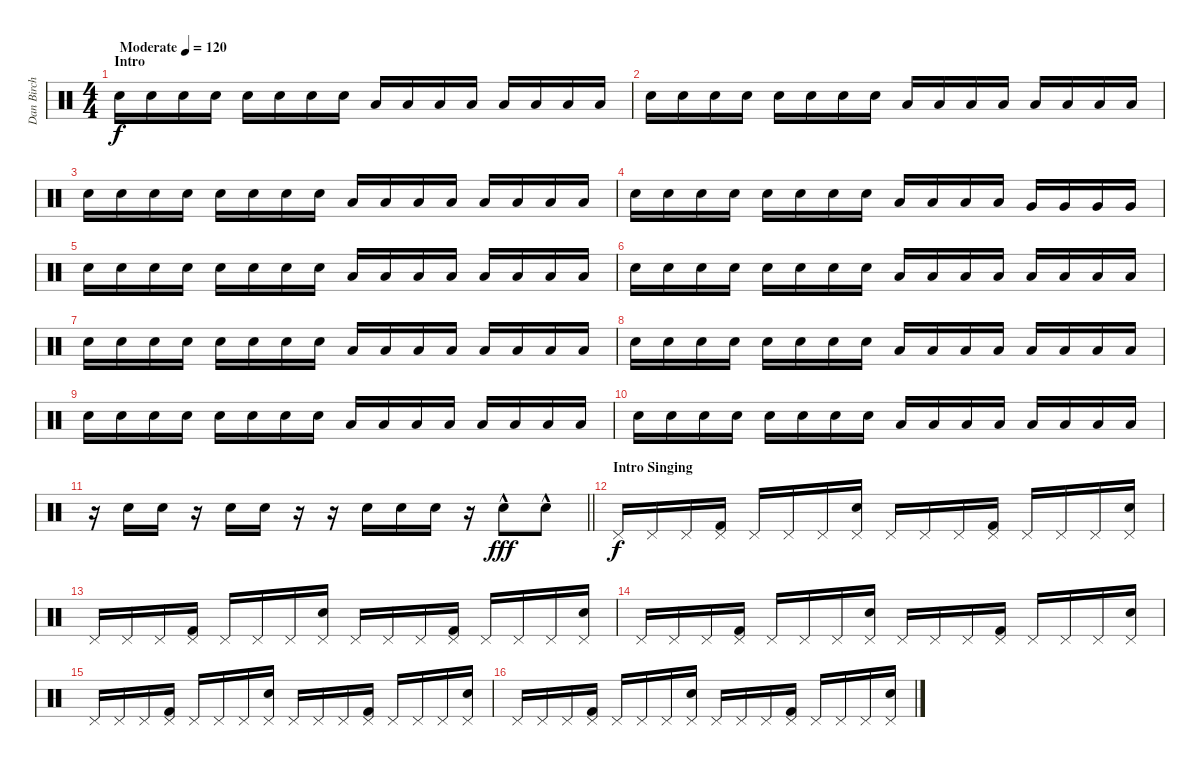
\track ("Dan Birch" "Dan Birch") {instrument percussion}
\staff {score}
\articulation defaults
\ts (4 4)
\section ("" "Intro")
\tempo (120 "Moderate")
\clef neutral
\ks c "Snare (hit) 2".16{dy f} "Snare (hit) 2".16 "Snare (hit) 2".16 "Snare (hit) 2".16 "Snare (hit) 2".16 "Snare (hit) 2".16 "Snare (hit) 2".16 "Snare (hit) 2".16 "Low Floor Tom (hit)".16 "Low Floor Tom (hit)".16 "Low Floor Tom (hit)".16 "Low Floor Tom (hit)".16 "Low Floor Tom (hit)".16 "Low Floor Tom (hit)".16 "Low Floor Tom (hit)".16 "Low Floor Tom (hit)".16
|
"Snare (hit) 2".16 "Snare (hit) 2".16 "Snare (hit) 2".16 "Snare (hit) 2".16 "Snare (hit) 2".16 "Snare (hit) 2".16 "Snare (hit) 2".16 "Snare (hit) 2".16 "Low Floor Tom (hit)".16 "Low Floor Tom (hit)".16 "Low Floor Tom (hit)".16 "Low Floor Tom (hit)".16 "Low Floor Tom (hit)".16 "Low Floor Tom (hit)".16 "Low Floor Tom (hit)".16 "Low Floor Tom (hit)".16 |
"Snare (hit) 2".16 "Snare (hit) 2".16 "Snare (hit) 2".16 "Snare (hit) 2".16 "Snare (hit) 2".16 "Snare (hit) 2".16 "Snare (hit) 2".16 "Snare (hit) 2".16 "Low Floor Tom (hit)".16 "Low Floor Tom (hit)".16 "Low Floor Tom (hit)".16 "Low Floor Tom (hit)".16 "Low Floor Tom (hit)".16 "Low Floor Tom (hit)".16 "Low Floor Tom (hit)".16 "Low Floor Tom (hit)".16 |
"Snare (hit) 2".16 "Snare (hit) 2".16 "Snare (hit) 2".16 "Snare (hit) 2".16 "Snare (hit) 2".16 "Snare (hit) 2".16 "Snare (hit) 2".16 "Snare (hit) 2".16 "Low Tom (hit)".16 "Low Tom (hit)".16 "Low Tom (hit)".16 "Low Tom (hit)".16 "Very Low Tom (hit)".16 "Very Low Tom (hit)".16 "Very Low Tom (hit)".16 "Very Low Tom (hit)".16 |
"Snare (hit) 2".16 "Snare (hit) 2".16 "Snare (hit) 2".16 "Snare (hit) 2".16 "Snare (hit) 2".16 "Snare (hit) 2".16 "Snare (hit) 2".16 "Snare (hit) 2".16 "Low Floor Tom (hit)".16 "Low Floor Tom (hit)".16 "Low Floor Tom (hit)".16 "Low Floor Tom (hit)".16 "Low Floor Tom (hit)".16 "Low Floor Tom (hit)".16 "Low Floor Tom (hit)".16 "Low Floor Tom (hit)".16 |
"Snare (hit) 2".16 "Snare (hit) 2".16 "Snare (hit) 2".16 "Snare (hit) 2".16 "Snare (hit) 2".16 "Snare (hit) 2".16 "Snare (hit) 2".16 "Snare (hit) 2".16 "Low Floor Tom (hit)".16 "Low Floor Tom (hit)".16 "Low Floor Tom (hit)".16 "Low Floor Tom (hit)".16 "Low Floor Tom (hit)".16 "Low Floor Tom (hit)".16 "Low Floor Tom (hit)".16 "Low Floor Tom (hit)".16 |
"Snare (hit) 2".16 "Snare (hit) 2".16 "Snare (hit) 2".16 "Snare (hit) 2".16 "Snare (hit) 2".16 "Snare (hit) 2".16 "Snare (hit) 2".16 "Snare (hit) 2".16 "Low Floor Tom (hit)".16 "Low Floor Tom (hit)".16 "Low Floor Tom (hit)".16 "Low Floor Tom (hit)".16 "Low Floor Tom (hit)".16 "Low Floor Tom (hit)".16 "Low Floor Tom (hit)".16 "Low Floor Tom (hit)".16 |
"Snare (hit) 2".16 "Snare (hit) 2".16 "Snare (hit) 2".16 "Snare (hit) 2".16 "Snare (hit) 2".16 "Snare (hit) 2".16 "Snare (hit) 2".16 "Snare (hit) 2".16 "Low Floor Tom (hit)".16 "Low Floor Tom (hit)".16 "Low Floor Tom (hit)".16 "Low Floor Tom (hit)".16 "Low Floor Tom (hit)".16 "Low Floor Tom (hit)".16 "Low Floor Tom (hit)".16 "Low Floor Tom (hit)".16 |
"Snare (hit) 2".16 "Snare (hit) 2".16 "Snare (hit) 2".16 "Snare (hit) 2".16 "Snare (hit) 2".16 "Snare (hit) 2".16 "Snare (hit) 2".16 "Snare (hit) 2".16 "Low Floor Tom (hit)".16 "Low Floor Tom (hit)".16 "Low Floor Tom (hit)".16 "Low Floor Tom (hit)".16 "Low Floor Tom (hit)".16 "Low Floor Tom (hit)".16 "Low Floor Tom (hit)".16 "Low Floor Tom (hit)".16 |
"Snare (hit) 2".16 "Snare (hit) 2".16 "Snare (hit) 2".16 "Snare (hit) 2".16 "Snare (hit) 2".16 "Snare (hit) 2".16 "Snare (hit) 2".16 "Snare (hit) 2".16 "Low Floor Tom (hit)".16 "Low Floor Tom (hit)".16 "Low Floor Tom (hit)".16 "Low Floor Tom (hit)".16 "Low Floor Tom (hit)".16 "Low Floor Tom (hit)".16 "Low Floor Tom (hit)".16 "Low Floor Tom (hit)".16 |
\barLineRight lightlight
r.16 "Snare (hit) 2".16 "Snare (hit) 2".16 r.16 "Snare (hit) 2".16 "Snare (hit) 2".16 r.16 r.16 "Snare (hit) 2".16 "Snare (hit) 2".16 "Snare (hit) 2".16 r.16 "Snare (hit) 2"{hac}.8{dy fff} "Snare (hit) 2"{hac}.8 |
\section ("" "Intro Singing")
"Pedal Hi-Hat (hit)".16{dy f} "Pedal Hi-Hat (hit)".16 "Pedal Hi-Hat (hit)".16 ("Pedal Hi-Hat (hit)" "Kick (hit) 2").16 "Pedal Hi-Hat (hit)".16 "Pedal Hi-Hat (hit)".16 "Pedal Hi-Hat (hit)".16 ("Pedal Hi-Hat (hit)" "Snare (hit) 2").16 "Pedal Hi-Hat (hit)".16 "Pedal Hi-Hat (hit)".16 "Pedal Hi-Hat (hit)".16 ("Pedal Hi-Hat (hit)" "Kick (hit) 2").16 "Pedal Hi-Hat (hit)".16 "Pedal Hi-Hat (hit)".16 "Pedal Hi-Hat (hit)".16 ("Pedal Hi-Hat (hit)" "Snare (hit) 2").16 |
"Pedal Hi-Hat (hit)".16 "Pedal Hi-Hat (hit)".16 "Pedal Hi-Hat (hit)".16 ("Pedal Hi-Hat (hit)" "Kick (hit) 2").16 "Pedal Hi-Hat (hit)".16 "Pedal Hi-Hat (hit)".16 "Pedal Hi-Hat (hit)".16 ("Pedal Hi-Hat (hit)" "Snare (hit) 2").16 "Pedal Hi-Hat (hit)".16 "Pedal Hi-Hat (hit)".16 "Pedal Hi-Hat (hit)".16 ("Pedal Hi-Hat (hit)" "Kick (hit) 2").16 "Pedal Hi-Hat (hit)".16 "Pedal Hi-Hat (hit)".16 "Pedal Hi-Hat (hit)".16 ("Pedal Hi-Hat (hit)" "Snare (hit) 2").16 |
"Pedal Hi-Hat (hit)".16 "Pedal Hi-Hat (hit)".16 "Pedal Hi-Hat (hit)".16 ("Pedal Hi-Hat (hit)" "Kick (hit) 2").16 "Pedal Hi-Hat (hit)".16 "Pedal Hi-Hat (hit)".16 "Pedal Hi-Hat (hit)".16 ("Pedal Hi-Hat (hit)" "Snare (hit) 2").16 "Pedal Hi-Hat (hit)".16 "Pedal Hi-Hat (hit)".16 "Pedal Hi-Hat (hit)".16 ("Pedal Hi-Hat (hit)" "Kick (hit) 2").16 "Pedal Hi-Hat (hit)".16 "Pedal Hi-Hat (hit)".16 "Pedal Hi-Hat (hit)".16 ("Pedal Hi-Hat (hit)" "Snare (hit) 2").16 |
"Pedal Hi-Hat (hit)".16 "Pedal Hi-Hat (hit)".16 "Pedal Hi-Hat (hit)".16 ("Pedal Hi-Hat (hit)" "Kick (hit) 2").16 "Pedal Hi-Hat (hit)".16 "Pedal Hi-Hat (hit)".16 "Pedal Hi-Hat (hit)".16 ("Pedal Hi-Hat (hit)" "Snare (hit) 2").16 "Pedal Hi-Hat (hit)".16 "Pedal Hi-Hat (hit)".16 "Pedal Hi-Hat (hit)".16 ("Pedal Hi-Hat (hit)" "Kick (hit) 2").16 "Pedal Hi-Hat (hit)".16 "Pedal Hi-Hat (hit)".16 "Pedal Hi-Hat (hit)".16 ("Pedal Hi-Hat (hit)" "Snare (hit) 2").16 |
"Pedal Hi-Hat (hit)".16 "Pedal Hi-Hat (hit)".16 "Pedal Hi-Hat (hit)".16 ("Pedal Hi-Hat (hit)" "Kick (hit) 2").16 "Pedal Hi-Hat (hit)".16 "Pedal Hi-Hat (hit)".16 "Pedal Hi-Hat (hit)".16 ("Pedal Hi-Hat (hit)" "Snare (hit) 2").16 "Pedal Hi-Hat (hit)".16 "Pedal Hi-Hat (hit)".16 "Pedal Hi-Hat (hit)".16 ("Pedal Hi-Hat (hit)" "Kick (hit) 2").16 "Pedal Hi-Hat (hit)".16 "Pedal Hi-Hat (hit)".16 "Pedal Hi-Hat (hit)".16 ("Pedal Hi-Hat (hit)" "Snare (hit) 2").16
